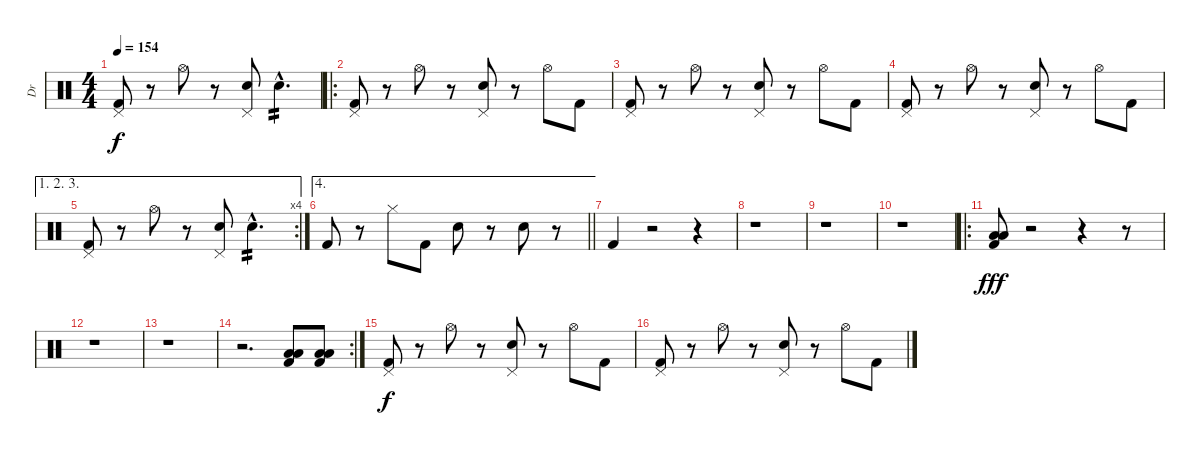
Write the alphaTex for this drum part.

\track ("Dr" "Dr") {instrument percussion}
\staff {score}
\articulation defaults
\ts (4 4)
\tempo 154
\clef neutral
\ks c
("Pedal Hi-Hat (hit)" "Kick (hit) 2").8{dy f} r.8 "Hi-Hat (open)".8 r.8 ("Pedal Hi-Hat (hit)" "Electric Snare (hit)").8 "Electric Snare (hit)"{hac}.4{d tp 2} |
\ro
("Pedal Hi-Hat (hit)" "Kick (hit) 2").8 r.8 "Hi-Hat (open)".8 r.8 ("Pedal Hi-Hat (hit)" "Electric Snare (hit)").8 r.8 "Hi-Hat (open)".8 "Kick (hit) 2".8 |
("Pedal Hi-Hat (hit)" "Kick (hit) 2").8 r.8 "Hi-Hat (open)".8 r.8 ("Pedal Hi-Hat (hit)" "Electric Snare (hit)").8 r.8 "Hi-Hat (open)".8 "Kick (hit) 2".8 |
("Pedal Hi-Hat (hit)" "Kick (hit) 2").8 r.8 "Hi-Hat (open)".8 r.8 ("Pedal Hi-Hat (hit)" "Electric Snare (hit)").8 r.8 "Hi-Hat (open)".8 "Kick (hit) 2".8 |
\ae (1 2 3)
\rc 4
("Pedal Hi-Hat (hit)" "Kick (hit) 2").8 r.8 "Hi-Hat (open)".8 r.8 ("Pedal Hi-Hat (hit)" "Electric Snare (hit)").8 "Electric Snare (hit)"{hac}.4{d tp 2} |
\ae 4
\barLineRight lightlight "Kick (hit) 2".8
r.8 "Hi-Hat (closed)".8 "Kick (hit) 2".8 "Electric Snare (hit)".8 r.8 "Electric Snare (hit)".8 r.8 |
"Kick (hit) 2".4 r.2 r.4 |
r.1 |
r.1 |
r.1 |
\ro
("Low Tom (hit)" "Low Tom (hit)" "Kick (hit) 2").8{dy fff} r.2 r.4 r.8 |
r.1 |
r.1 |
\rc 2
r.2{d} ("Low Tom (hit)" "Low Tom (hit)" "Kick (hit) 2").8 ("Low Tom (hit)" "Low Tom (hit)" "Kick (hit) 2").8 |
("Pedal Hi-Hat (hit)" "Kick (hit) 2").8{dy f} r.8 "Hi-Hat (open)".8 r.8 ("Pedal Hi-Hat (hit)" "Electric Snare (hit)").8 r.8 "Hi-Hat (open)".8 "Kick (hit) 2".8 |
("Pedal Hi-Hat (hit)" "Kick (hit) 2").8 r.8 "Hi-Hat (open)".8 r.8 ("Pedal Hi-Hat (hit)" "Electric Snare (hit)").8 r.8 "Hi-Hat (open)".8 "Kick (hit) 2".8
